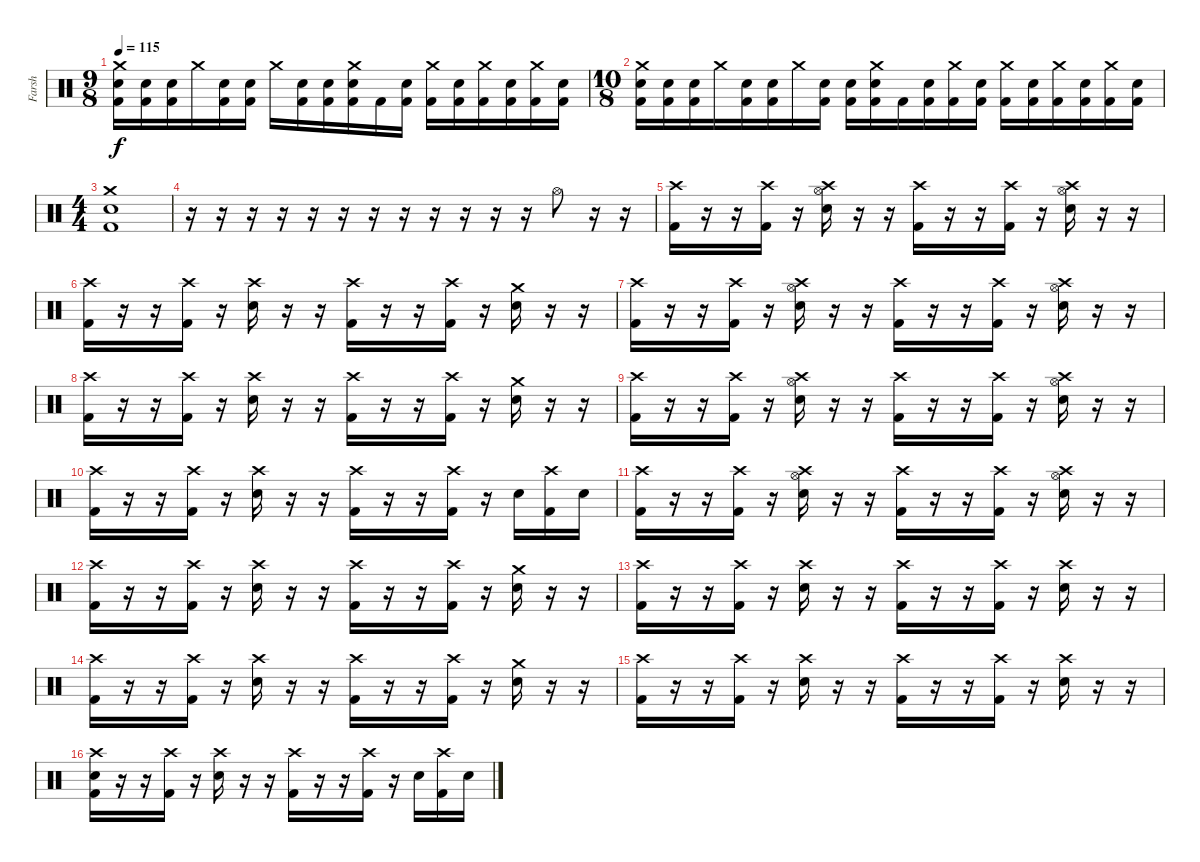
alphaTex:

\track ("Farsh" "Farsh") {instrument percussion}
\staff {score}
\articulation defaults
\ts (9 8)
\tempo 115
\clef neutral
\ks c
("Crash medium (hit)" "Electric Snare (hit)" "Kick (hit) 2").16{dy f} ("Electric Snare (hit)" "Kick (hit) 2").16 ("Electric Snare (hit)" "Kick (hit) 2").16 "Crash medium (hit)".16 ("Electric Snare (hit)" "Kick (hit) 2").16 ("Electric Snare (hit)" "Kick (hit) 2").16 "Crash medium (hit)".16 ("Electric Snare (hit)" "Kick (hit) 2").16 ("Electric Snare (hit)" "Kick (hit) 2").16 ("Crash medium (hit)" "Electric Snare (hit)" "Kick (hit) 2").16 "Kick (hit) 2".16 ("Electric Snare (hit)" "Kick (hit) 2").16 ("Crash medium (hit)" "Kick (hit) 2").16 ("Electric Snare (hit)" "Kick (hit) 2").16 ("Crash medium (hit)" "Kick (hit) 2").16 ("Electric Snare (hit)" "Kick (hit) 2").16 ("Crash medium (hit)" "Kick (hit) 2").16 ("Electric Snare (hit)" "Kick (hit) 2").16 |
\ts (10 8)
("Crash medium (hit)" "Electric Snare (hit)" "Kick (hit) 2").16 ("Electric Snare (hit)" "Kick (hit) 2").16 ("Electric Snare (hit)" "Kick (hit) 2").16 "Crash medium (hit)".16 ("Electric Snare (hit)" "Kick (hit) 2").16 ("Electric Snare (hit)" "Kick (hit) 2").16 "Crash medium (hit)".16 ("Electric Snare (hit)" "Kick (hit) 2").16 ("Electric Snare (hit)" "Kick (hit) 2").16 ("Crash medium (hit)" "Electric Snare (hit)" "Kick (hit) 2").16 "Kick (hit) 2".16 ("Electric Snare (hit)" "Kick (hit) 2").16 ("Crash medium (hit)" "Kick (hit) 2").16 ("Electric Snare (hit)" "Kick (hit) 2").16 ("Crash medium (hit)" "Kick (hit) 2").16 ("Electric Snare (hit)" "Kick (hit) 2").16 ("Crash medium (hit)" "Kick (hit) 2").16 ("Electric Snare (hit)" "Kick (hit) 2").16 ("Crash medium (hit)" "Kick (hit) 2").16 ("Electric Snare (hit)" "Kick (hit) 2").16 |
\ts (4 4)
("Crash medium (hit)" "Electric Snare (hit)" "Kick (hit) 2").1 |
r.16 r.16 r.16 r.16 r.16 r.16 r.16 r.16 r.16 r.16 r.16 r.16 "Hi-Hat (open)".8 r.16 r.16 |
("Crash high (hit)" "Kick (hit) 2").16 r.16 r.16 ("Crash high (hit)" "Kick (hit) 2").16 r.16 ("Crash high (hit)" "Hi-Hat (open)" "Electric Snare (hit)").16 r.16 r.16 ("Crash high (hit)" "Kick (hit) 2").16 r.16 r.16 ("Crash high (hit)" "Kick (hit) 2").16 r.16 ("Crash high (hit)" "Hi-Hat (open)" "Electric Snare (hit)").16 r.16 r.16 |
("Crash high (hit)" "Kick (hit) 2").16 r.16 r.16 ("Crash high (hit)" "Kick (hit) 2").16 r.16 ("Crash high (hit)" "Electric Snare (hit)").16 r.16 r.16 ("Crash high (hit)" "Kick (hit) 2").16 r.16 r.16 ("Crash high (hit)" "Kick (hit) 2").16 r.16 ("Crash medium (hit)" "Electric Snare (hit)").16 r.16 r.16 |
("Crash high (hit)" "Kick (hit) 2").16 r.16 r.16 ("Crash high (hit)" "Kick (hit) 2").16 r.16 ("Crash high (hit)" "Hi-Hat (open)" "Electric Snare (hit)").16 r.16 r.16 ("Crash high (hit)" "Kick (hit) 2").16 r.16 r.16 ("Crash high (hit)" "Kick (hit) 2").16 r.16 ("Crash high (hit)" "Hi-Hat (open)" "Electric Snare (hit)").16 r.16 r.16 |
("Crash high (hit)" "Kick (hit) 2").16 r.16 r.16 ("Crash high (hit)" "Kick (hit) 2").16 r.16 ("Crash high (hit)" "Electric Snare (hit)").16 r.16 r.16 ("Crash high (hit)" "Kick (hit) 2").16 r.16 r.16 ("Crash high (hit)" "Kick (hit) 2").16 r.16 ("Crash medium (hit)" "Electric Snare (hit)").16 r.16 r.16 |
("Crash high (hit)" "Kick (hit) 2").16 r.16 r.16 ("Crash high (hit)" "Kick (hit) 2").16 r.16 ("Crash high (hit)" "Hi-Hat (open)" "Electric Snare (hit)").16 r.16 r.16 ("Crash high (hit)" "Kick (hit) 2").16 r.16 r.16 ("Crash high (hit)" "Kick (hit) 2").16 r.16 ("Crash high (hit)" "Hi-Hat (open)" "Electric Snare (hit)").16 r.16 r.16 |
("Crash high (hit)" "Kick (hit) 2").16 r.16 r.16 ("Crash high (hit)" "Kick (hit) 2").16 r.16 ("Crash high (hit)" "Electric Snare (hit)").16 r.16 r.16 ("Crash high (hit)" "Kick (hit) 2").16 r.16 r.16 ("Crash high (hit)" "Kick (hit) 2").16 r.16 "Electric Snare (hit)".16 ("Crash high (hit)" "Kick (hit) 2").16 "Electric Snare (hit)".16 |
("Crash high (hit)" "Kick (hit) 2").16 r.16 r.16 ("Crash high (hit)" "Kick (hit) 2").16 r.16 ("Crash high (hit)" "Hi-Hat (open)" "Electric Snare (hit)").16 r.16 r.16 ("Crash high (hit)" "Kick (hit) 2").16 r.16 r.16 ("Crash high (hit)" "Kick (hit) 2").16 r.16 ("Crash high (hit)" "Hi-Hat (open)" "Electric Snare (hit)").16 r.16 r.16 |
("Crash high (hit)" "Kick (hit) 2").16 r.16 r.16 ("Crash high (hit)" "Kick (hit) 2").16 r.16 ("Crash high (hit)" "Electric Snare (hit)").16 r.16 r.16 ("Crash high (hit)" "Kick (hit) 2").16 r.16 r.16 ("Crash high (hit)" "Kick (hit) 2").16 r.16 ("Crash medium (hit)" "Electric Snare (hit)").16 r.16 r.16 |
("Crash high (hit)" "Kick (hit) 2").16 r.16 r.16 ("Crash high (hit)" "Kick (hit) 2").16 r.16 ("Crash high (hit)" "Electric Snare (hit)").16 r.16 r.16 ("Crash high (hit)" "Kick (hit) 2").16 r.16 r.16 ("Crash high (hit)" "Kick (hit) 2").16 r.16 ("Crash high (hit)" "Electric Snare (hit)").16 r.16 r.16 |
("Crash high (hit)" "Kick (hit) 2").16 r.16 r.16 ("Crash high (hit)" "Kick (hit) 2").16 r.16 ("Crash high (hit)" "Electric Snare (hit)").16 r.16 r.16 ("Crash high (hit)" "Kick (hit) 2").16 r.16 r.16 ("Crash high (hit)" "Kick (hit) 2").16 r.16 ("Crash medium (hit)" "Electric Snare (hit)").16 r.16 r.16 |
("Crash high (hit)" "Kick (hit) 2").16 r.16 r.16 ("Crash high (hit)" "Kick (hit) 2").16 r.16 ("Crash high (hit)" "Electric Snare (hit)").16 r.16 r.16 ("Crash high (hit)" "Kick (hit) 2").16 r.16 r.16 ("Crash high (hit)" "Kick (hit) 2").16 r.16 ("Crash high (hit)" "Electric Snare (hit)").16 r.16 r.16 |
("Crash high (hit)" "Electric Snare (hit)" "Kick (hit) 2").16 r.16 r.16 ("Crash high (hit)" "Kick (hit) 2").16 r.16 ("Crash high (hit)" "Electric Snare (hit)").16 r.16 r.16 ("Crash high (hit)" "Kick (hit) 2").16 r.16 r.16 ("Crash high (hit)" "Kick (hit) 2").16 r.16 "Electric Snare (hit)".16 ("Crash high (hit)" "Kick (hit) 2").16 "Electric Snare (hit)".16
